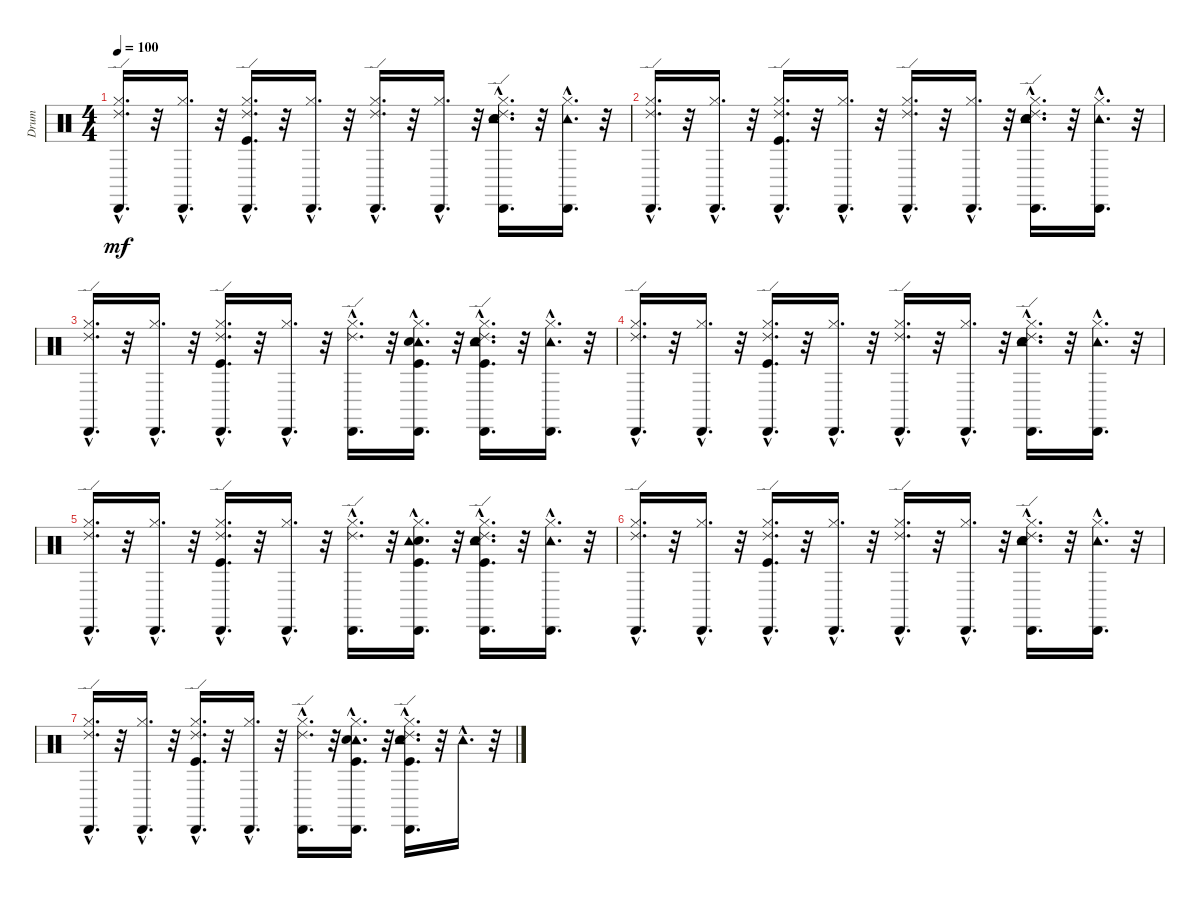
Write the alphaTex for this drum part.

\track ("Drum" "Drum") {instrument percussion}
\staff {score}
\articulation defaults
\ts (4 4)
\tempo 100
\clef neutral
\ks c
("Hi-Hat (closed)"{hac} "Cabasa (hit)"{hac} "Ride (edge) 2"{hac}).16{d dy mf} r.32 ("Hi-Hat (closed)"{hac} "Cabasa (hit)"{hac}).16{d} r.32 ("Hi-Hat (closed)"{hac} "Kick (hit)"{hac} "Cabasa (hit)"{hac} "Ride (edge) 2"{hac}).16{d} r.32 ("Hi-Hat (closed)"{hac} "Cabasa (hit)"{hac}).16{d} r.32 ("Hi-Hat (closed)"{hac} "Cabasa (hit)"{hac} "Ride (edge) 2"{hac}).16{d} r.32 ("Hi-Hat (closed)"{hac} "Cabasa (hit)"{hac}).16{d} r.32 ("Hi-Hat (closed)"{hac} "Tambourine (hit)"{hac} "Snare (hit) 2"{hac} "Cabasa (hit)"{hac} "Ride (edge) 2"{hac} "Electric Snare (hit)"{hac}).16{d} r.32 ("Hi-Hat (closed)"{hac} "Tambourine (hit)"{hac} "Cabasa (hit)"{hac}).16{d} r.32 |
("Cabasa (hit)"{hac} "Hi-Hat (closed)"{hac} "Ride (edge) 2"{hac}).16{d} r.32 ("Hi-Hat (closed)"{hac} "Cabasa (hit)"{hac}).16{d} r.32 ("Hi-Hat (closed)"{hac} "Cabasa (hit)"{hac} "Kick (hit)"{hac} "Ride (edge) 2"{hac}).16{d} r.32 ("Cabasa (hit)"{hac} "Hi-Hat (closed)"{hac}).16{d} r.32 ("Ride (edge) 2"{hac} "Hi-Hat (closed)"{hac} "Cabasa (hit)"{hac}).16{d} r.32 ("Cabasa (hit)"{hac} "Hi-Hat (closed)"{hac}).16{d} r.32 ("Electric Snare (hit)"{hac} "Tambourine (hit)"{hac} "Hi-Hat (closed)"{hac} "Snare (hit) 2"{hac} "Ride (edge) 2"{hac} "Cabasa (hit)"{hac}).16{d} r.32 ("Cabasa (hit)"{hac} "Hi-Hat (closed)"{hac} "Tambourine (hit)"{hac}).16{d} r.32 |
("Cabasa (hit)"{hac} "Hi-Hat (closed)"{hac} "Ride (edge) 2"{hac}).16{d} r.32 ("Cabasa (hit)"{hac} "Hi-Hat (closed)"{hac}).16{d} r.32 ("Ride (edge) 2"{hac} "Kick (hit)"{hac} "Cabasa (hit)"{hac} "Hi-Hat (closed)"{hac}).16{d} r.32 ("Hi-Hat (closed)"{hac} "Cabasa (hit)"{hac}).16{d} r.32 ("Ride (edge) 2"{hac} "Cabasa (hit)"{hac} "Hi-Hat (closed)"{hac}).16{d} r.32 ("Tambourine (hit)"{hac} "Cabasa (hit)"{hac} "Snare (hit) 2"{hac} "Kick (hit)"{hac} "Hi-Hat (closed)"{hac}).16{d} r.32 ("Tambourine (hit)"{hac} "Snare (hit) 2"{hac} "Cabasa (hit)"{hac} "Hi-Hat (closed)"{hac} "Ride (edge) 2"{hac} "Kick (hit)"{hac}).16{d} r.32 ("Tambourine (hit)"{hac} "Hi-Hat (closed)"{hac} "Cabasa (hit)"{hac}).16{d} r.32 |
("Ride (edge) 2"{hac} "Cabasa (hit)"{hac} "Hi-Hat (closed)"{hac}).16{d} r.32 ("Cabasa (hit)"{hac} "Hi-Hat (closed)"{hac}).16{d} r.32 ("Ride (edge) 2"{hac} "Cabasa (hit)"{hac} "Kick (hit)"{hac} "Hi-Hat (closed)"{hac}).16{d} r.32 ("Cabasa (hit)"{hac} "Hi-Hat (closed)"{hac}).16{d} r.32 ("Ride (edge) 2"{hac} "Cabasa (hit)"{hac} "Hi-Hat (closed)"{hac}).16{d} r.32 ("Cabasa (hit)"{hac} "Hi-Hat (closed)"{hac}).16{d} r.32 ("Electric Snare (hit)"{hac} "Ride (edge) 2"{hac} "Cabasa (hit)"{hac} "Snare (hit) 2"{hac} "Tambourine (hit)"{hac} "Hi-Hat (closed)"{hac}).16{d} r.32 ("Cabasa (hit)"{hac} "Tambourine (hit)"{hac} "Hi-Hat (closed)"{hac}).16{d} r.32 |
("Cabasa (hit)"{hac} "Hi-Hat (closed)"{hac} "Ride (edge) 2"{hac}).16{d} r.32 ("Cabasa (hit)"{hac} "Hi-Hat (closed)"{hac}).16{d} r.32 ("Cabasa (hit)"{hac} "Kick (hit)"{hac} "Ride (edge) 2"{hac} "Hi-Hat (closed)"{hac}).16{d} r.32 ("Cabasa (hit)"{hac} "Hi-Hat (closed)"{hac}).16{d} r.32 ("Cabasa (hit)"{hac} "Hi-Hat (closed)"{hac} "Ride (edge) 2"{hac}).16{d} r.32 ("Snare (hit) 2"{hac} "Tambourine (hit)"{hac} "Cabasa (hit)"{hac} "Hi-Hat (closed)"{hac} "Kick (hit)"{hac}).16{d} r.32 ("Kick (hit)"{hac} "Tambourine (hit)"{hac} "Snare (hit) 2"{hac} "Hi-Hat (closed)"{hac} "Ride (edge) 2"{hac} "Cabasa (hit)"{hac}).16{d} r.32 ("Hi-Hat (closed)"{hac} "Tambourine (hit)"{hac} "Cabasa (hit)"{hac}).16{d} r.32 |
("Ride (edge) 2"{hac} "Cabasa (hit)"{hac} "Hi-Hat (closed)"{hac}).16{d} r.32 ("Cabasa (hit)"{hac} "Hi-Hat (closed)"{hac}).16{d} r.32 ("Ride (edge) 2"{hac} "Cabasa (hit)"{hac} "Kick (hit)"{hac} "Hi-Hat (closed)"{hac}).16{d} r.32 ("Cabasa (hit)"{hac} "Hi-Hat (closed)"{hac}).16{d} r.32 ("Ride (edge) 2"{hac} "Cabasa (hit)"{hac} "Hi-Hat (closed)"{hac}).16{d} r.32 ("Cabasa (hit)"{hac} "Hi-Hat (closed)"{hac}).16{d} r.32 ("Electric Snare (hit)"{hac} "Ride (edge) 2"{hac} "Cabasa (hit)"{hac} "Snare (hit) 2"{hac} "Tambourine (hit)"{hac} "Hi-Hat (closed)"{hac}).16{d} r.32 ("Cabasa (hit)"{hac} "Tambourine (hit)"{hac} "Hi-Hat (closed)"{hac}).16{d} r.32 |
("Hi-Hat (closed)"{hac} "Cabasa (hit)"{hac} "Ride (edge) 2"{hac}).16{d} r.32 ("Cabasa (hit)"{hac} "Hi-Hat (closed)"{hac}).16{d} r.32 ("Hi-Hat (closed)"{hac} "Ride (edge) 2"{hac} "Cabasa (hit)"{hac} "Kick (hit)"{hac}).16{d} r.32 ("Cabasa (hit)"{hac} "Hi-Hat (closed)"{hac}).16{d} r.32 ("Hi-Hat (closed)"{hac} "Cabasa (hit)"{hac} "Ride (edge) 2"{hac}).16{d} r.32 ("Hi-Hat (closed)"{hac} "Cabasa (hit)"{hac} "Tambourine (hit)"{hac} "Kick (hit)"{hac} "Snare (hit) 2"{hac}).16{d} r.32 ("Cabasa (hit)"{hac} "Snare (hit) 2"{hac} "Tambourine (hit)"{hac} "Ride (edge) 2"{hac} "Hi-Hat (closed)"{hac} "Kick (hit)"{hac}).16{d} r.32 "Tambourine (hit)"{hac}.16{d} r.32
